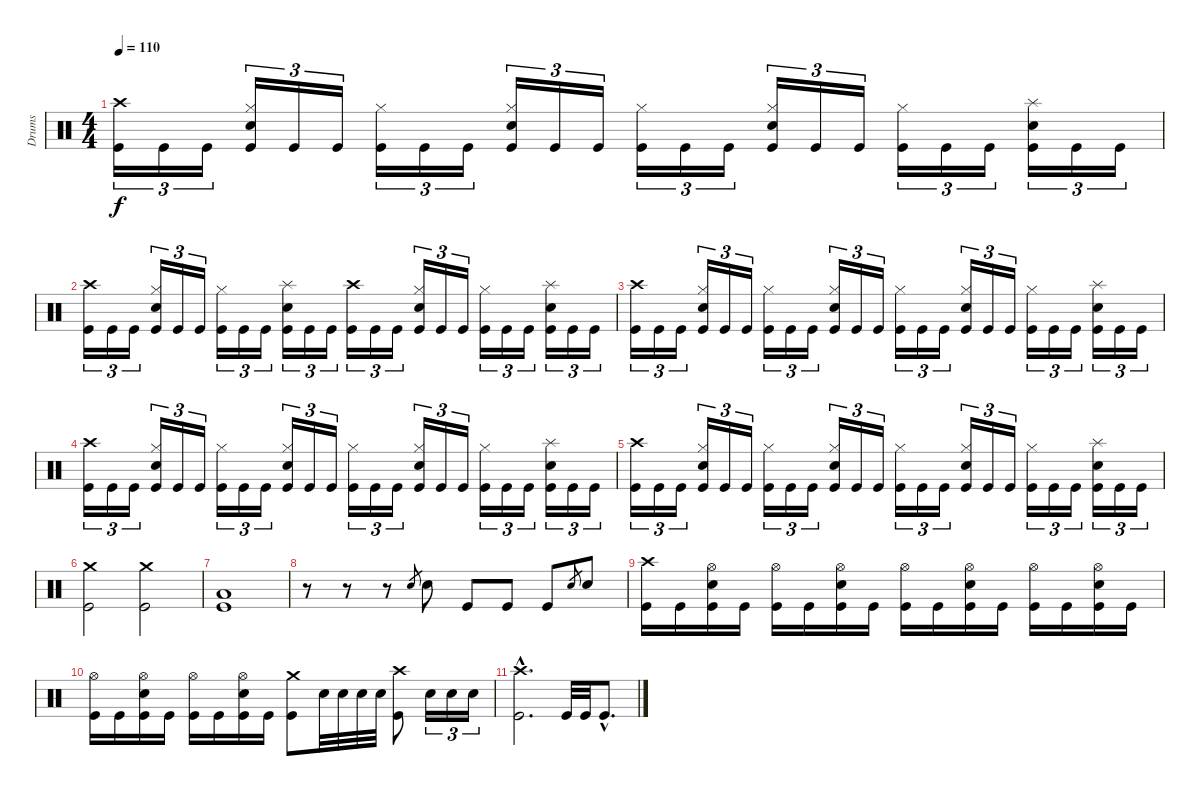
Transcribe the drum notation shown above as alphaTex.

\track ("Drums" "Drums") {instrument percussion}
\staff {score}
\articulation defaults
\ts (4 4)
\tempo 110
\clef neutral
\ks c
("Crash high (hit)" "Kick (hit)").16{tu (3 2) dy f} "Kick (hit)".16{tu (3 2)} "Kick (hit)".16{tu (3 2)} ("Hi-Hat (closed)" "Snare (hit) 2" "Kick (hit)").16{tu (3 2)} "Kick (hit)".16{tu (3 2)} "Kick (hit)".16{tu (3 2)} ("Hi-Hat (closed)" "Kick (hit)").16{tu (3 2)} "Kick (hit)".16{tu (3 2)} "Kick (hit)".16{tu (3 2)} ("Hi-Hat (closed)" "Snare (hit) 2" "Kick (hit)").16{tu (3 2)} "Kick (hit)".16{tu (3 2)} "Kick (hit)".16{tu (3 2)} ("Hi-Hat (closed)" "Kick (hit)").16{tu (3 2)} "Kick (hit)".16{tu (3 2)} "Kick (hit)".16{tu (3 2)} ("Hi-Hat (closed)" "Snare (hit) 2" "Kick (hit)").16{tu (3 2)} "Kick (hit)".16{tu (3 2)} "Kick (hit)".16{tu (3 2)} ("Hi-Hat (closed)" "Kick (hit)").16{tu (3 2)} "Kick (hit)".16{tu (3 2)} "Kick (hit)".16{tu (3 2)} ("Splash (hit)" "Snare (hit) 2" "Kick (hit)").16{tu (3 2)} "Kick (hit)".16{tu (3 2)} "Kick (hit)".16{tu (3 2)} |
("Crash high (hit)" "Kick (hit)").16{tu (3 2)} "Kick (hit)".16{tu (3 2)} "Kick (hit)".16{tu (3 2)} ("Hi-Hat (closed)" "Snare (hit) 2" "Kick (hit)").16{tu (3 2)} "Kick (hit)".16{tu (3 2)} "Kick (hit)".16{tu (3 2)} ("Hi-Hat (closed)" "Kick (hit)").16{tu (3 2)} "Kick (hit)".16{tu (3 2)} "Kick (hit)".16{tu (3 2)} ("Splash (hit)" "Snare (hit) 2" "Kick (hit)").16{tu (3 2)} "Kick (hit)".16{tu (3 2)} "Kick (hit)".16{tu (3 2)} ("Crash high (hit)" "Kick (hit)").16{tu (3 2)} "Kick (hit)".16{tu (3 2)} "Kick (hit)".16{tu (3 2)} ("Hi-Hat (closed)" "Snare (hit) 2" "Kick (hit)").16{tu (3 2)} "Kick (hit)".16{tu (3 2)} "Kick (hit)".16{tu (3 2)} ("Hi-Hat (closed)" "Kick (hit)").16{tu (3 2)} "Kick (hit)".16{tu (3 2)} "Kick (hit)".16{tu (3 2)} ("Splash (hit)" "Snare (hit) 2" "Kick (hit)").16{tu (3 2)} "Kick (hit)".16{tu (3 2)} "Kick (hit)".16{tu (3 2)} |
("Crash high (hit)" "Kick (hit)").16{tu (3 2)} "Kick (hit)".16{tu (3 2)} "Kick (hit)".16{tu (3 2)} ("Hi-Hat (closed)" "Snare (hit) 2" "Kick (hit)").16{tu (3 2)} "Kick (hit)".16{tu (3 2)} "Kick (hit)".16{tu (3 2)} ("Hi-Hat (closed)" "Kick (hit)").16{tu (3 2)} "Kick (hit)".16{tu (3 2)} "Kick (hit)".16{tu (3 2)} ("Hi-Hat (closed)" "Snare (hit) 2" "Kick (hit)").16{tu (3 2)} "Kick (hit)".16{tu (3 2)} "Kick (hit)".16{tu (3 2)} ("Hi-Hat (closed)" "Kick (hit)").16{tu (3 2)} "Kick (hit)".16{tu (3 2)} "Kick (hit)".16{tu (3 2)} ("Hi-Hat (closed)" "Snare (hit) 2" "Kick (hit)").16{tu (3 2)} "Kick (hit)".16{tu (3 2)} "Kick (hit)".16{tu (3 2)} ("Hi-Hat (closed)" "Kick (hit)").16{tu (3 2)} "Kick (hit)".16{tu (3 2)} "Kick (hit)".16{tu (3 2)} ("Splash (hit)" "Snare (hit) 2" "Kick (hit)").16{tu (3 2)} "Kick (hit)".16{tu (3 2)} "Kick (hit)".16{tu (3 2)} |
("Crash high (hit)" "Kick (hit)").16{tu (3 2)} "Kick (hit)".16{tu (3 2)} "Kick (hit)".16{tu (3 2)} ("Hi-Hat (closed)" "Snare (hit) 2" "Kick (hit)").16{tu (3 2)} "Kick (hit)".16{tu (3 2)} "Kick (hit)".16{tu (3 2)} ("Hi-Hat (closed)" "Kick (hit)").16{tu (3 2)} "Kick (hit)".16{tu (3 2)} "Kick (hit)".16{tu (3 2)} ("Hi-Hat (closed)" "Snare (hit) 2" "Kick (hit)").16{tu (3 2)} "Kick (hit)".16{tu (3 2)} "Kick (hit)".16{tu (3 2)} ("Hi-Hat (closed)" "Kick (hit)").16{tu (3 2)} "Kick (hit)".16{tu (3 2)} "Kick (hit)".16{tu (3 2)} ("Hi-Hat (closed)" "Snare (hit) 2" "Kick (hit)").16{tu (3 2)} "Kick (hit)".16{tu (3 2)} "Kick (hit)".16{tu (3 2)} ("Hi-Hat (closed)" "Kick (hit)").16{tu (3 2)} "Kick (hit)".16{tu (3 2)} "Kick (hit)".16{tu (3 2)} ("Splash (hit)" "Snare (hit) 2" "Kick (hit)").16{tu (3 2)} "Kick (hit)".16{tu (3 2)} "Kick (hit)".16{tu (3 2)} |
("Crash high (hit)" "Kick (hit)").16{tu (3 2)} "Kick (hit)".16{tu (3 2)} "Kick (hit)".16{tu (3 2)} ("Hi-Hat (closed)" "Snare (hit) 2" "Kick (hit)").16{tu (3 2)} "Kick (hit)".16{tu (3 2)} "Kick (hit)".16{tu (3 2)} ("Hi-Hat (closed)" "Kick (hit)").16{tu (3 2)} "Kick (hit)".16{tu (3 2)} "Kick (hit)".16{tu (3 2)} ("Hi-Hat (closed)" "Snare (hit) 2" "Kick (hit)").16{tu (3 2)} "Kick (hit)".16{tu (3 2)} "Kick (hit)".16{tu (3 2)} ("Hi-Hat (closed)" "Kick (hit)").16{tu (3 2)} "Kick (hit)".16{tu (3 2)} "Kick (hit)".16{tu (3 2)} ("Hi-Hat (closed)" "Snare (hit) 2" "Kick (hit)").16{tu (3 2)} "Kick (hit)".16{tu (3 2)} "Kick (hit)".16{tu (3 2)} ("Hi-Hat (closed)" "Kick (hit)").16{tu (3 2)} "Kick (hit)".16{tu (3 2)} "Kick (hit)".16{tu (3 2)} ("Splash (hit)" "Snare (hit) 2" "Kick (hit)").16{tu (3 2)} "Kick (hit)".16{tu (3 2)} "Kick (hit)".16{tu (3 2)} |
("Crash medium (hit)" "Kick (hit)").2 ("Crash medium (hit)" "Kick (hit)").2 |
("Low Tom (hit)" "Kick (hit)").1 |
r.8 r.8 r.8 "Snare (hit) 2".8{gr} "Snare (hit) 2".8 "Kick (hit)".8 "Kick (hit)".8 "Kick (hit)".8 "Snare (hit) 2".8{gr} "Snare (hit) 2".8 |
("Crash high (hit)" "Kick (hit)").16 "Kick (hit)".16 ("Hi-Hat (open)" "Snare (hit) 2" "Kick (hit)").16 "Kick (hit)".16 ("Hi-Hat (open)" "Kick (hit)").16 "Kick (hit)".16 ("Hi-Hat (open)" "Snare (hit) 2" "Kick (hit)").16 "Kick (hit)".16 ("Hi-Hat (open)" "Kick (hit)").16 "Kick (hit)".16 ("Hi-Hat (open)" "Snare (hit) 2" "Kick (hit)").16 "Kick (hit)".16 ("Hi-Hat (open)" "Kick (hit)").16 "Kick (hit)".16 ("Hi-Hat (open)" "Snare (hit) 2" "Kick (hit)").16 "Kick (hit)".16 |
("Hi-Hat (open)" "Kick (hit)").16 "Kick (hit)".16 ("Hi-Hat (open)" "Snare (hit) 2" "Kick (hit)").16 "Kick (hit)".16 ("Hi-Hat (open)" "Kick (hit)").16 "Kick (hit)".16 ("Hi-Hat (open)" "Snare (hit) 2" "Kick (hit)").16 "Kick (hit)".16 ("Crash medium (hit)" "Kick (hit)").8 "Snare (hit) 2".32 "Snare (hit) 2".32 "Snare (hit) 2".32 "Snare (hit) 2".32 ("Crash high (hit)" "Kick (hit)").8 "Snare (hit) 2".16{tu (3 2)} "Snare (hit) 2".16{tu (3 2)} "Snare (hit) 2".16{tu (3 2)} |
("Crash high (hit)"{hac} "Kick (hit)"{hac}).2{d} "Kick (hit)".32 "Kick (hit)".32 "Kick (hit)"{hac}.8{d}
